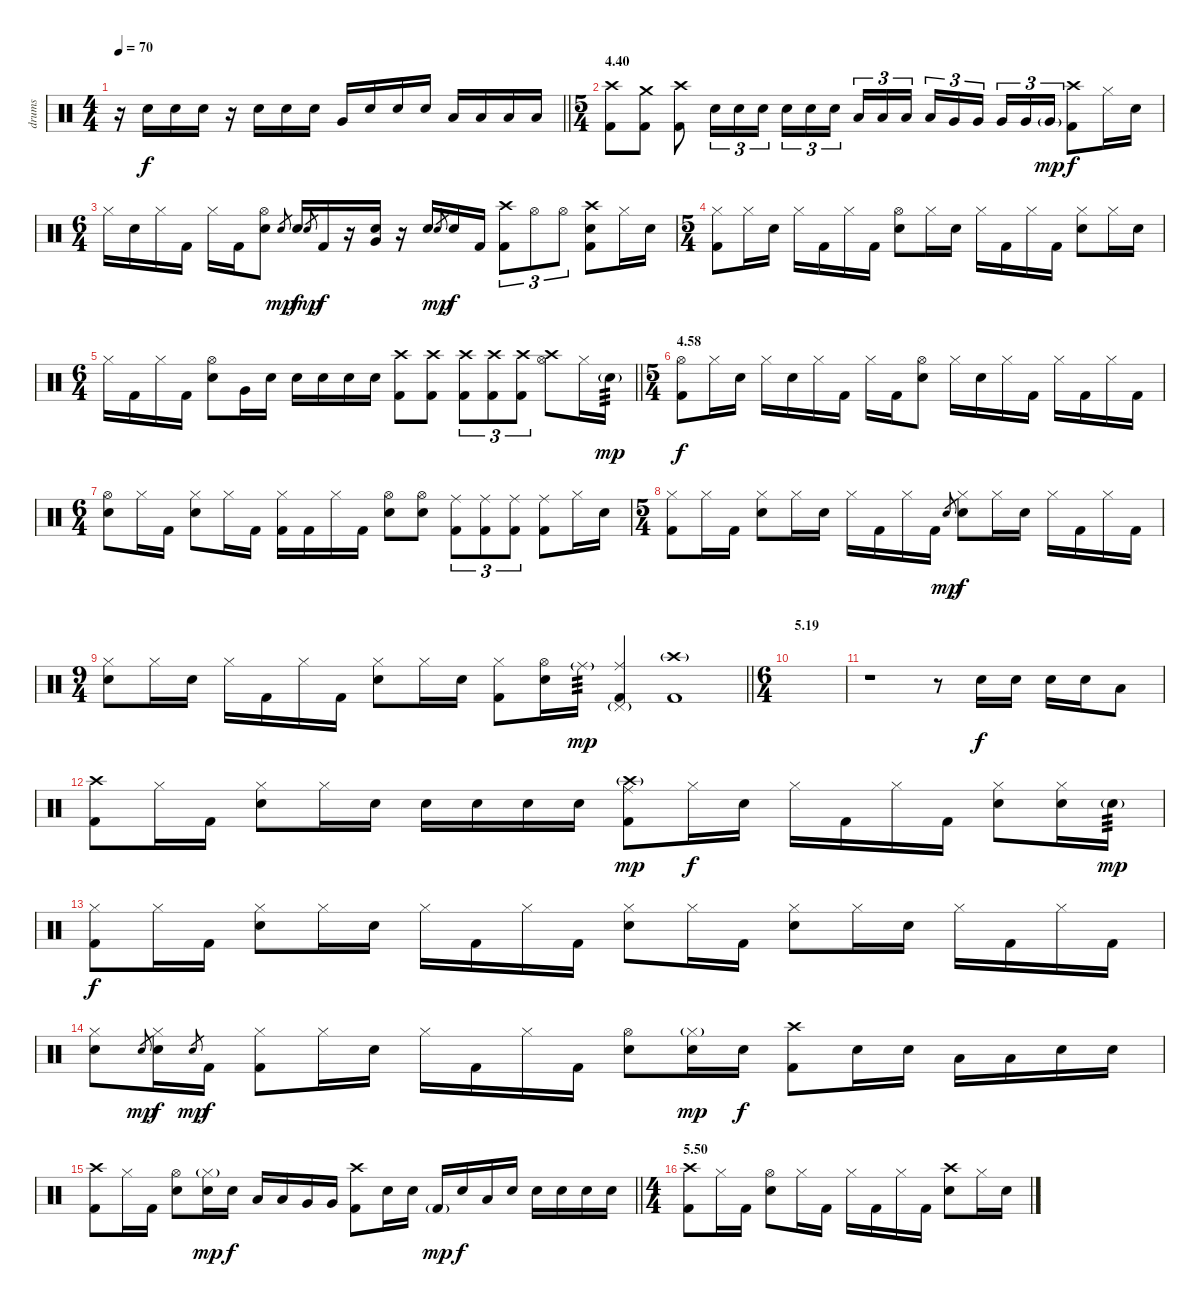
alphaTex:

\track ("drums" "drums") {instrument percussion}
\staff {score}
\articulation defaults
\ts (4 4)
\tempo 70
\clef neutral
\barLineRight lightlight
\ks c
r.16{dy f} "Electric Snare (hit)".16 "Electric Snare (hit)".16 "Electric Snare (hit)".16 r.16 "Electric Snare (hit)".16 "Electric Snare (hit)".16 "Electric Snare (hit)".16 "Very Low Tom (hit)".16 "Electric Snare (hit)".16 "Electric Snare (hit)".16 "Electric Snare (hit)".16 "Low Tom (hit)".16 "Low Tom (hit)".16 "Low Tom (hit)".16 "Low Tom (hit)".16 |
\ts (5 4)
\section ("" "4.40")
("Crash high (hit)" "Kick (hit) 2").8 ("Crash medium (hit)" "Kick (hit) 2").8 ("Crash high (hit)" "Kick (hit) 2").8 "Electric Snare (hit)".16{tu (3 2)} "Electric Snare (hit)".16{tu (3 2)} "Electric Snare (hit)".16{tu (3 2)} "Electric Snare (hit)".16{tu (3 2)} "Electric Snare (hit)".16{tu (3 2)} "Electric Snare (hit)".16{tu (3 2) beam splitsecondary} "Low Tom (hit)".16{tu (3 2)} "Low Tom (hit)".16{tu (3 2)} "Low Tom (hit)".16{tu (3 2)} "Low Tom (hit)".16{tu (3 2)} "Very Low Tom (hit)".16{tu (3 2)} "Very Low Tom (hit)".16{tu (3 2) beam splitsecondary} "Very Low Tom (hit)".16{tu (3 2)} "Very Low Tom (hit)".16{tu (3 2)} "Very Low Tom (hit)"{g}.16{tu (3 2) dy mp} ("Crash high (hit)" "Kick (hit) 2").8{dy f} "Hi-Hat (closed)".16 "Electric Snare (hit)".16 |
\ts (6 4)
"Hi-Hat (closed)".16 "Electric Snare (hit)".16 "Hi-Hat (closed)".16 "Kick (hit) 2".16 "Hi-Hat (closed)".16 "Kick (hit) 2".16 ("Hi-Hat (open)" "Electric Snare (hit)").8 "Electric Snare (hit)".8{gr dy mp} "Electric Snare (hit)".16{dy f} "Electric Snare (hit)".8{gr dy mp} "Kick (hit) 2".16{dy f} r.16 ("Very Low Tom (hit)" "Electric Snare (hit)").16 r.16 "Electric Snare (hit)".16 "Electric Snare (hit)".8{gr dy mp} "Electric Snare (hit)".16{dy f} "Kick (hit) 2".16 ("Crash high (hit)" "Kick (hit) 2").8{tu (3 2)} "Hi-Hat (open)".8{tu (3 2)} "Hi-Hat (open)".8{tu (3 2)} ("Crash high (hit)" "Electric Snare (hit)" "Kick (hit) 2").8 "Hi-Hat (closed)".16 "Electric Snare (hit)".16 |
\ts (5 4)
("Hi-Hat (closed)" "Kick (hit) 2").8 "Hi-Hat (closed)".16 "Electric Snare (hit)".16 "Hi-Hat (closed)".16 "Kick (hit) 2".16 "Hi-Hat (closed)".16 "Kick (hit) 2".16 ("Hi-Hat (open)" "Electric Snare (hit)").8 "Hi-Hat (closed)".16 "Electric Snare (hit)".16 "Hi-Hat (closed)".16 "Kick (hit) 2".16 "Hi-Hat (closed)".16 "Kick (hit) 2".16 ("Hi-Hat (closed)" "Electric Snare (hit)").8 "Hi-Hat (closed)".16 "Electric Snare (hit)".16 |
\ts (6 4)
\barLineRight lightlight "Hi-Hat (closed)".16 "Kick (hit) 2".16 "Hi-Hat (closed)".16 "Kick (hit) 2".16
("Hi-Hat (open)" "Electric Snare (hit)").8 "Very Low Tom (hit)".16 "Electric Snare (hit)".16 "Electric Snare (hit)".16 "Electric Snare (hit)".16 "Electric Snare (hit)".16 "Electric Snare (hit)".16 ("Crash high (hit)" "Kick (hit) 2").8 ("Crash high (hit)" "Kick (hit) 2").8 ("Crash high (hit)" "Kick (hit) 2").8{tu (3 2)} ("Crash high (hit)" "Kick (hit) 2").8{tu (3 2)} ("Crash high (hit)" "Kick (hit) 2").8{tu (3 2)} ("Crash high (hit)" "Hi-Hat (open)").8 "Hi-Hat (closed)".16 "Electric Snare (hit)"{g}.16{tp 3 dy mp} |
\ts (5 4)
\section ("" "4.58")
("Hi-Hat (open)" "Kick (hit) 2").8{dy f} "Hi-Hat (closed)".16 "Electric Snare (hit)".16 "Hi-Hat (closed)".16 "Electric Snare (hit)".16 "Hi-Hat (closed)".16 "Kick (hit) 2".16 "Hi-Hat (closed)".16 "Kick (hit) 2".16 ("Hi-Hat (open)" "Electric Snare (hit)").8 "Hi-Hat (closed)".16 "Electric Snare (hit)".16 "Hi-Hat (closed)".16 "Kick (hit) 2".16 "Hi-Hat (closed)".16 "Kick (hit) 2".16 "Hi-Hat (closed)".16 "Kick (hit) 2".16 |
\ts (6 4)
("Hi-Hat (open)" "Electric Snare (hit)").8 "Hi-Hat (closed)".16 "Kick (hit) 2".16 ("Hi-Hat (closed)" "Electric Snare (hit)").8 "Hi-Hat (closed)".16 "Kick (hit) 2".16 ("Hi-Hat (closed)" "Kick (hit) 2").16 "Kick (hit) 2".16 "Hi-Hat (closed)".16 "Kick (hit) 2".16 ("Hi-Hat (open)" "Electric Snare (hit)").8 ("Hi-Hat (open)" "Electric Snare (hit)").8 ("Ride (middle)" "Kick (hit) 2").8{tu (3 2)} ("Ride (middle)" "Kick (hit) 2").8{tu (3 2)} ("Ride (middle)" "Kick (hit) 2").8{tu (3 2)} ("Ride (middle)" "Kick (hit) 2").8 "Hi-Hat (closed)".16 "Electric Snare (hit)".16 |
\ts (5 4)
("Hi-Hat (closed)" "Kick (hit) 2").8 "Hi-Hat (closed)".16 "Kick (hit) 2".16 ("Hi-Hat (closed)" "Electric Snare (hit)").8 "Hi-Hat (closed)".16 "Electric Snare (hit)".16 "Hi-Hat (closed)".16 "Kick (hit) 2".16 "Hi-Hat (closed)".16 "Kick (hit) 2".16 "Electric Snare (hit)".8{gr dy mp} ("Hi-Hat (closed)" "Electric Snare (hit)").8{dy f} "Hi-Hat (closed)".16 "Electric Snare (hit)".16 "Hi-Hat (closed)".16 "Kick (hit) 2".16 "Hi-Hat (closed)".16 "Kick (hit) 2".16 |
\ts (9 4)
\barLineRight lightlight
("Hi-Hat (closed)" "Electric Snare (hit)").8 "Hi-Hat (closed)".16 "Electric Snare (hit)".16 "Hi-Hat (closed)".16 "Kick (hit) 2".16 "Hi-Hat (closed)".16 "Kick (hit) 2".16 ("Hi-Hat (closed)" "Electric Snare (hit)").8 "Hi-Hat (closed)".16 "Electric Snare (hit)".16 ("Hi-Hat (closed)" "Kick (hit) 2").8 ("Hi-Hat (open)" "Electric Snare (hit)").16 "Ride (middle)"{g}.16{tp 3 dy mp} ("Ride (middle)" "Pedal Hi-Hat (hit)"{g} "Kick (hit) 2").4 ("Crash high (hit)"{g} "Kick (hit) 2").1 |
\ts (6 4)
\section ("" "5.19")
|
r.1 r.8 "Electric Snare (hit)".16{dy f} "Electric Snare (hit)".16 "Electric Snare (hit)".16 "Electric Snare (hit)".16 "Low Tom (hit)".8 |
("Crash high (hit)" "Kick (hit) 2").8 "Hi-Hat (closed)".16 "Kick (hit) 2".16 ("Hi-Hat (closed)" "Electric Snare (hit)").8 "Hi-Hat (closed)".16 "Electric Snare (hit)".16 "Electric Snare (hit)".16 "Electric Snare (hit)".16 "Electric Snare (hit)".16 "Electric Snare (hit)".16 ("Crash high (hit)"{g} "Ride (middle)" "Kick (hit) 2").8{dy mp} "Hi-Hat (closed)".16{dy f} "Electric Snare (hit)".16 "Hi-Hat (closed)".16 "Kick (hit) 2".16 "Hi-Hat (closed)".16 "Kick (hit) 2".16 ("Hi-Hat (closed)" "Electric Snare (hit)").8 ("Hi-Hat (closed)" "Electric Snare (hit)").16 "Electric Snare (hit)"{g}.16{tp 3 dy mp} |
("Hi-Hat (closed)" "Kick (hit) 2").8{dy f} "Hi-Hat (closed)".16 "Kick (hit) 2".16 ("Hi-Hat (closed)" "Electric Snare (hit)").8 "Hi-Hat (closed)".16 "Electric Snare (hit)".16 "Hi-Hat (closed)".16 "Kick (hit) 2".16 "Hi-Hat (closed)".16 "Kick (hit) 2".16 ("Hi-Hat (closed)" "Electric Snare (hit)").8 "Hi-Hat (closed)".16 "Kick (hit) 2".16 ("Hi-Hat (closed)" "Electric Snare (hit)").8 "Hi-Hat (closed)".16 "Electric Snare (hit)".16 "Hi-Hat (closed)".16 "Kick (hit) 2".16 "Hi-Hat (closed)".16 "Kick (hit) 2".16 |
("Hi-Hat (closed)" "Electric Snare (hit)").8 "Electric Snare (hit)".8{gr dy mp} ("Hi-Hat (closed)" "Electric Snare (hit)").16{dy f} "Electric Snare (hit)".8{gr dy mp} "Kick (hit) 2".16{dy f} ("Hi-Hat (closed)" "Kick (hit) 2").8 "Hi-Hat (closed)".16 "Electric Snare (hit)".16 "Hi-Hat (closed)".16 "Kick (hit) 2".16 "Hi-Hat (closed)".16 "Kick (hit) 2".16 ("Hi-Hat (open)" "Electric Snare (hit)").8 ("Hi-Hat (closed)"{g} "Electric Snare (hit)").16{dy mp} "Electric Snare (hit)".16{dy f} ("Crash high (hit)" "Kick (hit) 2").8 "Electric Snare (hit)".16 "Electric Snare (hit)".16 "Low Tom (hit)".16 "Low Tom (hit)".16 "Electric Snare (hit)".16 "Electric Snare (hit)".16 |
\barLineRight lightlight
("Crash high (hit)" "Kick (hit) 2").8 "Hi-Hat (closed)".16 "Kick (hit) 2".16 ("Hi-Hat (open)" "Electric Snare (hit)").8 ("Hi-Hat (closed)"{g} "Electric Snare (hit)").16{dy mp} "Electric Snare (hit)".16{dy f} "Low Tom (hit)".16 "Low Tom (hit)".16 "Very Low Tom (hit)".16 "Very Low Tom (hit)".16 ("Crash high (hit)" "Kick (hit) 2").8 "Electric Snare (hit)".16 "Electric Snare (hit)".16 "Kick (hit) 2"{g}.16{dy mp} "Electric Snare (hit)".16{dy f} "Low Tom (hit)".16 "Electric Snare (hit)".16 "Electric Snare (hit)".16 "Electric Snare (hit)".16 "Electric Snare (hit)".16 "Electric Snare (hit)".16 |
\ts (4 4)
\section ("" "5.50")
("Crash high (hit)" "Kick (hit) 2").8 "Hi-Hat (closed)".16 "Kick (hit) 2".16 ("Hi-Hat (open)" "Electric Snare (hit)").8 "Hi-Hat (closed)".16 "Kick (hit) 2".16 "Hi-Hat (closed)".16 "Kick (hit) 2".16 "Hi-Hat (closed)".16 "Kick (hit) 2".16 ("Crash high (hit)" "Electric Snare (hit)").8 "Hi-Hat (closed)".16 "Electric Snare (hit)".16
